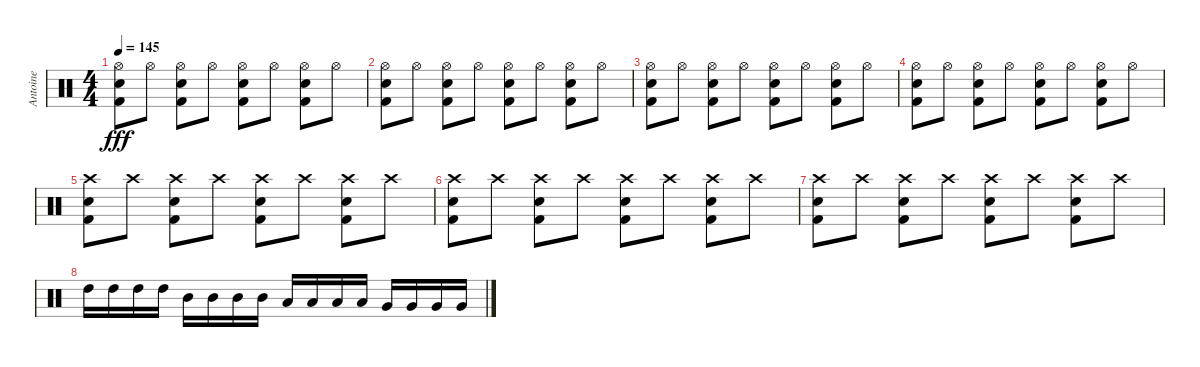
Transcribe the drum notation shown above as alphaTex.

\track ("Antoine" "Antoine") {instrument percussion}
\staff {score}
\articulation defaults
\ts (4 4)
\tempo 145
\clef neutral
\ks c
("Hi-Hat (open)" "Snare (hit) 2" "Kick (hit) 2").8{dy fff} "Hi-Hat (open)".8 ("Hi-Hat (open)" "Snare (hit) 2" "Kick (hit) 2").8 "Hi-Hat (open)".8 ("Hi-Hat (open)" "Snare (hit) 2" "Kick (hit) 2").8 "Hi-Hat (open)".8 ("Hi-Hat (open)" "Snare (hit) 2" "Kick (hit) 2").8 "Hi-Hat (open)".8 |
("Hi-Hat (open)" "Snare (hit) 2" "Kick (hit) 2").8 "Hi-Hat (open)".8 ("Hi-Hat (open)" "Snare (hit) 2" "Kick (hit) 2").8 "Hi-Hat (open)".8 ("Hi-Hat (open)" "Snare (hit) 2" "Kick (hit) 2").8 "Hi-Hat (open)".8 ("Hi-Hat (open)" "Snare (hit) 2" "Kick (hit) 2").8 "Hi-Hat (open)".8 |
("Hi-Hat (open)" "Snare (hit) 2" "Kick (hit) 2").8 "Hi-Hat (open)".8 ("Hi-Hat (open)" "Snare (hit) 2" "Kick (hit) 2").8 "Hi-Hat (open)".8 ("Hi-Hat (open)" "Snare (hit) 2" "Kick (hit) 2").8 "Hi-Hat (open)".8 ("Hi-Hat (open)" "Snare (hit) 2" "Kick (hit) 2").8 "Hi-Hat (open)".8 |
("Hi-Hat (open)" "Snare (hit) 2" "Kick (hit) 2").8 "Hi-Hat (open)".8 ("Hi-Hat (open)" "Snare (hit) 2" "Kick (hit) 2").8 "Hi-Hat (open)".8 ("Hi-Hat (open)" "Snare (hit) 2" "Kick (hit) 2").8 "Hi-Hat (open)".8 ("Hi-Hat (open)" "Snare (hit) 2" "Kick (hit) 2").8 "Hi-Hat (open)".8 |
("Crash high (hit)" "Snare (hit) 2" "Kick (hit) 2").8 "Crash high (hit)".8 ("Crash high (hit)" "Snare (hit) 2" "Kick (hit) 2").8 "Crash high (hit)".8 ("Crash high (hit)" "Snare (hit) 2" "Kick (hit) 2").8 "Crash high (hit)".8 ("Crash high (hit)" "Snare (hit) 2" "Kick (hit) 2").8 "Crash high (hit)".8 |
("Crash high (hit)" "Snare (hit) 2" "Kick (hit) 2").8 "Crash high (hit)".8 ("Crash high (hit)" "Snare (hit) 2" "Kick (hit) 2").8 "Crash high (hit)".8 ("Crash high (hit)" "Snare (hit) 2" "Kick (hit) 2").8 "Crash high (hit)".8 ("Crash high (hit)" "Snare (hit) 2" "Kick (hit) 2").8 "Crash high (hit)".8 |
("Crash high (hit)" "Snare (hit) 2" "Kick (hit) 2").8 "Crash high (hit)".8 ("Crash high (hit)" "Snare (hit) 2" "Kick (hit) 2").8 "Crash high (hit)".8 ("Crash high (hit)" "Snare (hit) 2" "Kick (hit) 2").8 "Crash high (hit)".8 ("Crash high (hit)" "Snare (hit) 2" "Kick (hit) 2").8 "Crash high (hit)".8 |
"High Tom (hit)".16 "High Tom (hit)".16 "High Tom (hit)".16 "High Tom (hit)".16 "Mid Tom (hit)".16 "Mid Tom (hit)".16 "Mid Tom (hit)".16 "Mid Tom (hit)".16 "Low Tom (hit)".16 "Low Tom (hit)".16 "Low Tom (hit)".16 "Low Tom (hit)".16 "Very Low Tom (hit)".16 "Very Low Tom (hit)".16 "Very Low Tom (hit)".16 "Very Low Tom (hit)".16
